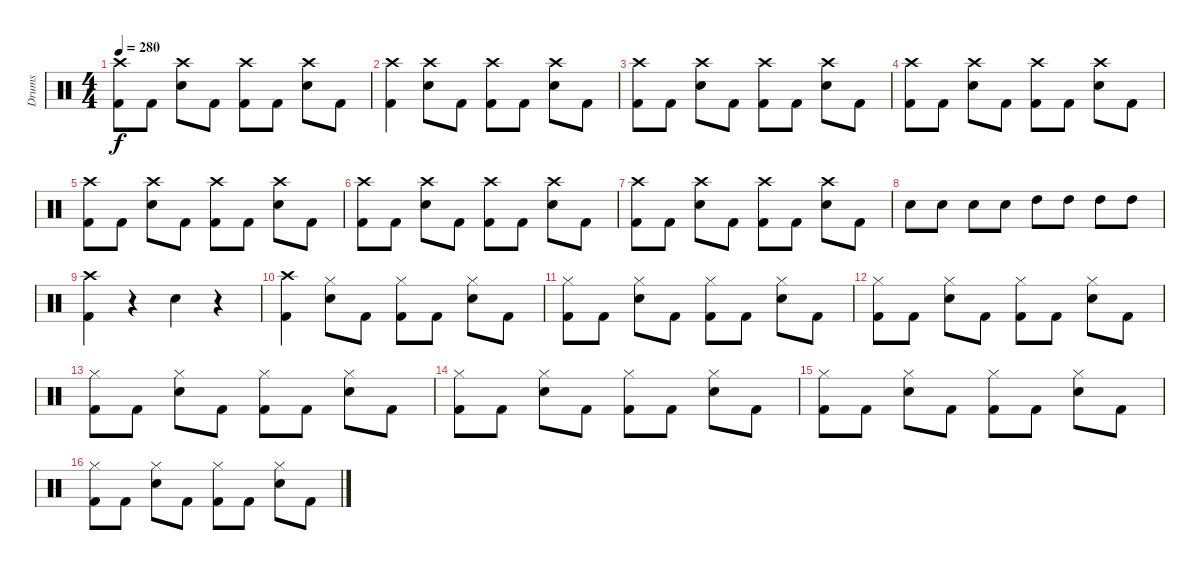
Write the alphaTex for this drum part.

\track ("Drums" "Drums") {instrument percussion}
\staff {score}
\articulation defaults
\ts (4 4)
\tempo 280
\clef neutral
\ks c
("Crash high (hit)" "Kick (hit) 2").8{dy f} "Kick (hit) 2".8 ("Crash high (hit)" "Snare (hit) 2").8 "Kick (hit) 2".8 ("Crash high (hit)" "Kick (hit) 2").8 "Kick (hit) 2".8 ("Crash high (hit)" "Snare (hit) 2").8 "Kick (hit) 2".8 |
("Crash high (hit)" "Kick (hit) 2").4 ("Crash high (hit)" "Snare (hit) 2").8 "Kick (hit) 2".8 ("Crash high (hit)" "Kick (hit) 2").8 "Kick (hit) 2".8 ("Crash high (hit)" "Snare (hit) 2").8 "Kick (hit) 2".8 |
("Crash high (hit)" "Kick (hit) 2").8 "Kick (hit) 2".8 ("Crash high (hit)" "Snare (hit) 2").8 "Kick (hit) 2".8 ("Crash high (hit)" "Kick (hit) 2").8 "Kick (hit) 2".8 ("Crash high (hit)" "Snare (hit) 2").8 "Kick (hit) 2".8 |
("Crash high (hit)" "Kick (hit) 2").8 "Kick (hit) 2".8 ("Crash high (hit)" "Snare (hit) 2").8 "Kick (hit) 2".8 ("Crash high (hit)" "Kick (hit) 2").8 "Kick (hit) 2".8 ("Crash high (hit)" "Snare (hit) 2").8 "Kick (hit) 2".8 |
("Crash high (hit)" "Kick (hit) 2").8 "Kick (hit) 2".8 ("Crash high (hit)" "Snare (hit) 2").8 "Kick (hit) 2".8 ("Crash high (hit)" "Kick (hit) 2").8 "Kick (hit) 2".8 ("Crash high (hit)" "Snare (hit) 2").8 "Kick (hit) 2".8 |
("Crash high (hit)" "Kick (hit) 2").8 "Kick (hit) 2".8 ("Crash high (hit)" "Snare (hit) 2").8 "Kick (hit) 2".8 ("Crash high (hit)" "Kick (hit) 2").8 "Kick (hit) 2".8 ("Crash high (hit)" "Snare (hit) 2").8 "Kick (hit) 2".8 |
("Crash high (hit)" "Kick (hit) 2").8 "Kick (hit) 2".8 ("Crash high (hit)" "Snare (hit) 2").8 "Kick (hit) 2".8 ("Crash high (hit)" "Kick (hit) 2").8 "Kick (hit) 2".8 ("Crash high (hit)" "Snare (hit) 2").8 "Kick (hit) 2".8 |
"Snare (hit) 2".8 "Snare (hit) 2".8 "Snare (hit) 2".8 "Snare (hit) 2".8 "High Tom (hit)".8 "High Tom (hit)".8 "High Tom (hit)".8 "High Tom (hit)".8 |
("Kick (hit) 2" "Crash high (hit)").4 r.4 "Snare (hit) 2".4 r.4 |
("Kick (hit) 2" "Crash high (hit)").4 ("Hi-Hat (closed)" "Snare (hit) 2").8 "Kick (hit) 2".8 ("Hi-Hat (closed)" "Kick (hit) 2").8 "Kick (hit) 2".8 ("Hi-Hat (closed)" "Snare (hit) 2").8 "Kick (hit) 2".8 |
("Hi-Hat (closed)" "Kick (hit) 2").8 "Kick (hit) 2".8 ("Hi-Hat (closed)" "Snare (hit) 2").8 "Kick (hit) 2".8 ("Hi-Hat (closed)" "Kick (hit) 2").8 "Kick (hit) 2".8 ("Hi-Hat (closed)" "Snare (hit) 2").8 "Kick (hit) 2".8 |
("Hi-Hat (closed)" "Kick (hit) 2").8 "Kick (hit) 2".8 ("Hi-Hat (closed)" "Snare (hit) 2").8 "Kick (hit) 2".8 ("Hi-Hat (closed)" "Kick (hit) 2").8 "Kick (hit) 2".8 ("Hi-Hat (closed)" "Snare (hit) 2").8 "Kick (hit) 2".8 |
("Hi-Hat (closed)" "Kick (hit) 2").8 "Kick (hit) 2".8 ("Hi-Hat (closed)" "Snare (hit) 2").8 "Kick (hit) 2".8 ("Hi-Hat (closed)" "Kick (hit) 2").8 "Kick (hit) 2".8 ("Hi-Hat (closed)" "Snare (hit) 2").8 "Kick (hit) 2".8 |
("Hi-Hat (closed)" "Kick (hit) 2").8 "Kick (hit) 2".8 ("Hi-Hat (closed)" "Snare (hit) 2").8 "Kick (hit) 2".8 ("Hi-Hat (closed)" "Kick (hit) 2").8 "Kick (hit) 2".8 ("Hi-Hat (closed)" "Snare (hit) 2").8 "Kick (hit) 2".8 |
("Hi-Hat (closed)" "Kick (hit) 2").8 "Kick (hit) 2".8 ("Hi-Hat (closed)" "Snare (hit) 2").8 "Kick (hit) 2".8 ("Hi-Hat (closed)" "Kick (hit) 2").8 "Kick (hit) 2".8 ("Hi-Hat (closed)" "Snare (hit) 2").8 "Kick (hit) 2".8 |
("Hi-Hat (closed)" "Kick (hit) 2").8 "Kick (hit) 2".8 ("Hi-Hat (closed)" "Snare (hit) 2").8 "Kick (hit) 2".8 ("Hi-Hat (closed)" "Kick (hit) 2").8 "Kick (hit) 2".8 ("Hi-Hat (closed)" "Snare (hit) 2").8 "Kick (hit) 2".8
